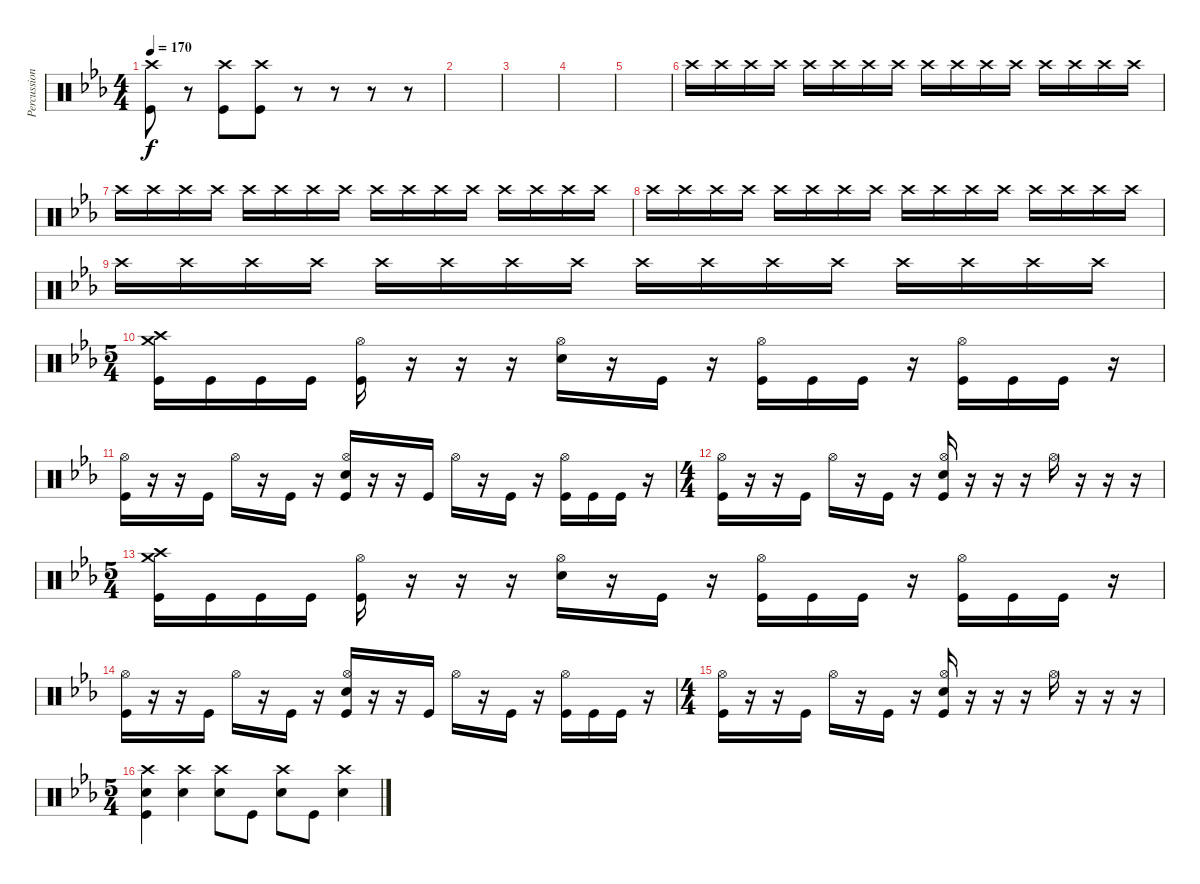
\track ("Percussion" "Percussion") {instrument percussion}
\staff {score}
\articulation defaults
\ts (4 4)
\tempo 170
\clef neutral
\ks cminor
("Crash high (hit)" "Kick (hit)").8{dy f} r.8{volume 4} ("Crash high (hit)" "Kick (hit)").8{volume 11} ("Crash high (hit)" "Kick (hit)").8 r.8{volume 5} r.8 r.8 r.8 |
|
|
|
|
"Crash high (hit)".16{volume 0} "Crash high (hit)".16{volume 10} "Crash high (hit)".16 "Crash high (hit)".16 "Crash high (hit)".16 "Crash high (hit)".16 "Crash high (hit)".16 "Crash high (hit)".16 "Crash high (hit)".16 "Crash high (hit)".16 "Crash high (hit)".16 "Crash high (hit)".16 "Crash high (hit)".16 "Crash high (hit)".16 "Crash high (hit)".16 "Crash high (hit)".16 |
"Crash high (hit)".16 "Crash high (hit)".16 "Crash high (hit)".16 "Crash high (hit)".16 "Crash high (hit)".16 "Crash high (hit)".16 "Crash high (hit)".16 "Crash high (hit)".16 "Crash high (hit)".16 "Crash high (hit)".16 "Crash high (hit)".16 "Crash high (hit)".16 "Crash high (hit)".16 "Crash high (hit)".16 "Crash high (hit)".16 "Crash high (hit)".16 |
"Crash high (hit)".16 "Crash high (hit)".16 "Crash high (hit)".16 "Crash high (hit)".16 "Crash high (hit)".16 "Crash high (hit)".16 "Crash high (hit)".16 "Crash high (hit)".16 "Crash high (hit)".16 "Crash high (hit)".16 "Crash high (hit)".16 "Crash high (hit)".16 "Crash high (hit)".16 "Crash high (hit)".16 "Crash high (hit)".16 "Crash high (hit)".16 |
"Crash high (hit)".16{volume 2} "Crash high (hit)".16 "Crash high (hit)".16 "Crash high (hit)".16 "Crash high (hit)".16 "Crash high (hit)".16 "Crash high (hit)".16 "Crash high (hit)".16 "Crash high (hit)".16 "Crash high (hit)".16 "Crash high (hit)".16 "Crash high (hit)".16 "Crash high (hit)".16 "Crash high (hit)".16 "Crash high (hit)".16 "Crash high (hit)".16 |
\ts (5 4)
("Crash medium (hit)" "Crash high (hit)" "Kick (hit)").16{volume 13} "Kick (hit)".16 "Kick (hit)".16 "Kick (hit)".16 ("Hi-Hat (open)" "Kick (hit)").16 r.16 r.16 r.16 ("Hi-Hat (open)" "Snare (hit) 2").16 r.16 "Kick (hit)".16 r.16 ("Hi-Hat (open)" "Kick (hit)").16 "Kick (hit)".16 "Kick (hit)".16 r.16 ("Hi-Hat (open)" "Kick (hit)").16 "Kick (hit)".16 "Kick (hit)".16 r.16 |
("Hi-Hat (open)" "Kick (hit)").16 r.16 r.16 "Kick (hit)".16 "Hi-Hat (open)".16 r.16 "Kick (hit)".16 r.16 ("Hi-Hat (open)" "Snare (hit) 2" "Kick (hit)").16 r.16 r.16 "Kick (hit)".16 "Hi-Hat (open)".16 r.16 "Kick (hit)".16 r.16 ("Hi-Hat (open)" "Kick (hit)").16 "Kick (hit)".16 "Kick (hit)".16 r.16 |
\ts (4 4)
("Hi-Hat (open)" "Kick (hit)").16 r.16 r.16 "Kick (hit)".16 "Hi-Hat (open)".16 r.16 "Kick (hit)".16 r.16 ("Hi-Hat (open)" "Snare (hit) 2" "Kick (hit)").16 r.16 r.16 r.16 "Hi-Hat (open)".16 r.16 r.16 r.16 |
\ts (5 4)
("Crash medium (hit)" "Crash high (hit)" "Kick (hit)").16 "Kick (hit)".16 "Kick (hit)".16 "Kick (hit)".16 ("Hi-Hat (open)" "Kick (hit)").16 r.16 r.16 r.16 ("Hi-Hat (open)" "Snare (hit) 2").16 r.16 "Kick (hit)".16 r.16 ("Hi-Hat (open)" "Kick (hit)").16 "Kick (hit)".16 "Kick (hit)".16 r.16 ("Hi-Hat (open)" "Kick (hit)").16 "Kick (hit)".16 "Kick (hit)".16 r.16 |
("Hi-Hat (open)" "Kick (hit)").16 r.16 r.16 "Kick (hit)".16 "Hi-Hat (open)".16 r.16 "Kick (hit)".16 r.16 ("Hi-Hat (open)" "Snare (hit) 2" "Kick (hit)").16 r.16 r.16 "Kick (hit)".16 "Hi-Hat (open)".16 r.16 "Kick (hit)".16 r.16 ("Hi-Hat (open)" "Kick (hit)").16 "Kick (hit)".16 "Kick (hit)".16 r.16 |
\ts (4 4)
("Hi-Hat (open)" "Kick (hit)").16 r.16 r.16 "Kick (hit)".16 "Hi-Hat (open)".16 r.16 "Kick (hit)".16 r.16 ("Hi-Hat (open)" "Snare (hit) 2" "Kick (hit)").16 r.16 r.16 r.16 "Hi-Hat (open)".16 r.16 r.16 r.16 |
\ts (5 4)
("Crash high (hit)" "Snare (hit) 2" "Kick (hit)").4 ("Crash high (hit)" "Snare (hit) 2").4 ("Crash high (hit)" "Snare (hit) 2").8 "Kick (hit)".8 ("Crash high (hit)" "Snare (hit) 2").8 "Kick (hit)".8 ("Crash high (hit)" "Snare (hit) 2").4
